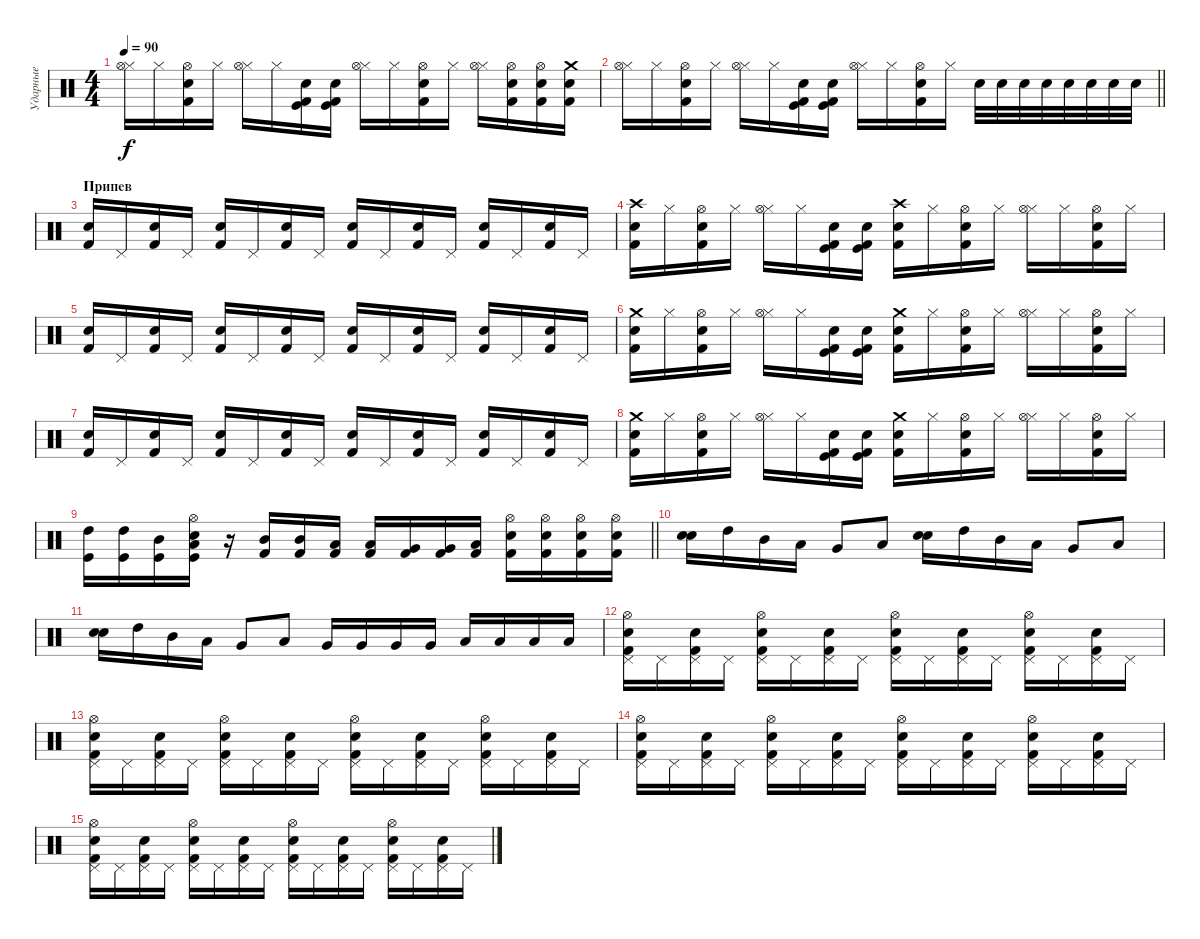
\track ("Ударные" "Ударные") {instrument percussion}
\staff {score}
\articulation defaults
\ts (4 4)
\tempo 90
\clef neutral
\ks c
("Hi-Hat (closed)" "Hi-Hat (open)").16{dy f} "Hi-Hat (closed)".16 ("Snare (hit) 2" "Hi-Hat (open)" "Kick (hit) 2").16 "Hi-Hat (closed)".16 ("Hi-Hat (closed)" "Hi-Hat (open)").16 "Hi-Hat (closed)".16 ("Snare (hit) 2" "Kick (hit)" "Kick (hit) 2").16 ("Snare (hit) 2" "Kick (hit)" "Kick (hit) 2").16 ("Hi-Hat (closed)" "Hi-Hat (open)").16 "Hi-Hat (closed)".16 ("Snare (hit) 2" "Kick (hit) 2" "Hi-Hat (open)").16 "Hi-Hat (closed)".16 ("Hi-Hat (closed)" "Hi-Hat (open)").16 ("Snare (hit) 2" "Kick (hit) 2" "Hi-Hat (open)").16 ("Snare (hit) 2" "Kick (hit) 2" "Hi-Hat (open)").16 ("Snare (hit) 2" "Kick (hit) 2" "Crash medium (hit)").16 |
\barLineRight lightlight
("Hi-Hat (closed)" "Hi-Hat (open)").16 "Hi-Hat (closed)".16 ("Snare (hit) 2" "Hi-Hat (open)" "Kick (hit) 2").16 "Hi-Hat (closed)".16 ("Hi-Hat (closed)" "Hi-Hat (open)").16 "Hi-Hat (closed)".16 ("Snare (hit) 2" "Kick (hit)" "Kick (hit) 2").16 ("Snare (hit) 2" "Kick (hit)" "Kick (hit) 2").16 ("Hi-Hat (closed)" "Hi-Hat (open)").16 "Hi-Hat (closed)".16 ("Snare (hit) 2" "Kick (hit) 2" "Hi-Hat (open)").16 "Hi-Hat (closed)".16 "Electric Snare (hit)".32 "Electric Snare (hit)".32 "Electric Snare (hit)".32 "Electric Snare (hit)".32 "Electric Snare (hit)".32 "Electric Snare (hit)".32 "Electric Snare (hit)".32 "Electric Snare (hit)".32 |
\section ("" "Припев")
("Electric Snare (hit)" "Kick (hit) 2").16 "Pedal Hi-Hat (hit)".16 ("Electric Snare (hit)" "Kick (hit) 2").16 "Pedal Hi-Hat (hit)".16 ("Electric Snare (hit)" "Kick (hit) 2").16 "Pedal Hi-Hat (hit)".16 ("Electric Snare (hit)" "Kick (hit) 2").16 "Pedal Hi-Hat (hit)".16 ("Electric Snare (hit)" "Kick (hit) 2").16 "Pedal Hi-Hat (hit)".16 ("Electric Snare (hit)" "Kick (hit) 2").16 "Pedal Hi-Hat (hit)".16 ("Electric Snare (hit)" "Kick (hit) 2").16 "Pedal Hi-Hat (hit)".16 ("Electric Snare (hit)" "Kick (hit) 2").16 "Pedal Hi-Hat (hit)".16 |
("Crash high (hit)" "Snare (hit) 2" "Kick (hit) 2").16 "Hi-Hat (closed)".16 ("Snare (hit) 2" "Hi-Hat (open)" "Kick (hit) 2").16 "Hi-Hat (closed)".16 ("Hi-Hat (closed)" "Hi-Hat (open)").16 "Hi-Hat (closed)".16 ("Snare (hit) 2" "Kick (hit)" "Kick (hit) 2").16 ("Snare (hit) 2" "Kick (hit)" "Kick (hit) 2").16 ("Crash high (hit)" "Kick (hit) 2" "Snare (hit) 2").16 "Hi-Hat (closed)".16 ("Snare (hit) 2" "Kick (hit) 2" "Hi-Hat (open)").16 "Hi-Hat (closed)".16 ("Hi-Hat (closed)" "Hi-Hat (open)").16 "Hi-Hat (closed)".16 ("Snare (hit) 2" "Kick (hit) 2" "Hi-Hat (open)").16 "Hi-Hat (closed)".16 |
("Electric Snare (hit)" "Kick (hit) 2").16 "Pedal Hi-Hat (hit)".16 ("Electric Snare (hit)" "Kick (hit) 2").16 "Pedal Hi-Hat (hit)".16 ("Electric Snare (hit)" "Kick (hit) 2").16 "Pedal Hi-Hat (hit)".16 ("Electric Snare (hit)" "Kick (hit) 2").16 "Pedal Hi-Hat (hit)".16 ("Electric Snare (hit)" "Kick (hit) 2").16 "Pedal Hi-Hat (hit)".16 ("Electric Snare (hit)" "Kick (hit) 2").16 "Pedal Hi-Hat (hit)".16 ("Electric Snare (hit)" "Kick (hit) 2").16 "Pedal Hi-Hat (hit)".16 ("Electric Snare (hit)" "Kick (hit) 2").16 "Pedal Hi-Hat (hit)".16 |
("Crash medium (hit)" "Kick (hit) 2" "Snare (hit) 2").16 "Hi-Hat (closed)".16 ("Snare (hit) 2" "Hi-Hat (open)" "Kick (hit) 2").16 "Hi-Hat (closed)".16 ("Hi-Hat (closed)" "Hi-Hat (open)").16 "Hi-Hat (closed)".16 ("Snare (hit) 2" "Kick (hit)" "Kick (hit) 2").16 ("Snare (hit) 2" "Kick (hit)" "Kick (hit) 2").16 ("Crash medium (hit)" "Kick (hit) 2" "Snare (hit) 2").16 "Hi-Hat (closed)".16 ("Snare (hit) 2" "Kick (hit) 2" "Hi-Hat (open)").16 "Hi-Hat (closed)".16 ("Hi-Hat (closed)" "Hi-Hat (open)").16 "Hi-Hat (closed)".16 ("Snare (hit) 2" "Kick (hit) 2" "Hi-Hat (open)").16 "Hi-Hat (closed)".16 |
("Electric Snare (hit)" "Kick (hit) 2").16 "Pedal Hi-Hat (hit)".16 ("Electric Snare (hit)" "Kick (hit) 2").16 "Pedal Hi-Hat (hit)".16 ("Electric Snare (hit)" "Kick (hit) 2").16 "Pedal Hi-Hat (hit)".16 ("Electric Snare (hit)" "Kick (hit) 2").16 "Pedal Hi-Hat (hit)".16 ("Electric Snare (hit)" "Kick (hit) 2").16 "Pedal Hi-Hat (hit)".16 ("Electric Snare (hit)" "Kick (hit) 2").16 "Pedal Hi-Hat (hit)".16 ("Electric Snare (hit)" "Kick (hit) 2").16 "Pedal Hi-Hat (hit)".16 ("Electric Snare (hit)" "Kick (hit) 2").16 "Pedal Hi-Hat (hit)".16 |
("Crash medium (hit)" "Kick (hit) 2" "Snare (hit) 2").16 "Hi-Hat (closed)".16 ("Snare (hit) 2" "Hi-Hat (open)" "Kick (hit) 2").16 "Hi-Hat (closed)".16 ("Hi-Hat (closed)" "Hi-Hat (open)").16 "Hi-Hat (closed)".16 ("Snare (hit) 2" "Kick (hit)" "Kick (hit) 2").16 ("Snare (hit) 2" "Kick (hit)" "Kick (hit) 2").16 ("Crash medium (hit)" "Kick (hit) 2" "Snare (hit) 2").16 "Hi-Hat (closed)".16 ("Snare (hit) 2" "Kick (hit) 2" "Hi-Hat (open)").16 "Hi-Hat (closed)".16 ("Hi-Hat (closed)" "Hi-Hat (open)").16 "Hi-Hat (closed)".16 ("Snare (hit) 2" "Kick (hit) 2" "Hi-Hat (open)").16 "Hi-Hat (closed)".16 |
\barLineRight lightlight
("High Tom (hit)" "Kick (hit)").16 ("High Tom (hit)" "Kick (hit)").16 ("Mid Tom (hit)" "Kick (hit)").16 ("Hi-Hat (open)" "Low Tom (hit)" "Kick (hit)" "Electric Snare (hit)").16 r.16 ("Mid Tom (hit)" "Kick (hit) 2").16 ("Mid Tom (hit)" "Kick (hit) 2").16 ("Low Tom (hit)" "Kick (hit) 2").16 ("Low Tom (hit)" "Kick (hit) 2").16 ("Very Low Tom (hit)" "Kick (hit) 2").16 ("Very Low Tom (hit)" "Kick (hit) 2").16 ("Low Floor Tom (hit)" "Kick (hit) 2").16 ("Hi-Hat (open)" "Kick (hit) 2" "Snare (hit) 2").16 ("Hi-Hat (open)" "Kick (hit) 2" "Snare (hit) 2").16 ("Hi-Hat (open)" "Kick (hit) 2" "Snare (hit) 2").16 ("Hi-Hat (open)" "Kick (hit) 2" "Snare (hit) 2").16 |
("Electric Snare (hit)" "Electric Snare (hit)").16 "High Tom (hit)".16 "Mid Tom (hit)".16 "Low Tom (hit)".16 "Very Low Tom (hit)".8 "Low Floor Tom (hit)".8 ("Electric Snare (hit)" "Electric Snare (hit)").16 "High Tom (hit)".16 "Mid Tom (hit)".16 "Low Tom (hit)".16 "Very Low Tom (hit)".8 "Low Floor Tom (hit)".8 |
("Electric Snare (hit)" "Electric Snare (hit)").16 "High Tom (hit)".16 "Mid Tom (hit)".16 "Low Tom (hit)".16 "Very Low Tom (hit)".8 "Low Floor Tom (hit)".8 "Very Low Tom (hit)".16 "Very Low Tom (hit)".16 "Very Low Tom (hit)".16 "Very Low Tom (hit)".16 "Low Floor Tom (hit)".16 "Low Floor Tom (hit)".16 "Low Floor Tom (hit)".16 "Low Floor Tom (hit)".16 |
("Pedal Hi-Hat (hit)" "Snare (hit) 2" "Hi-Hat (open)" "Kick (hit) 2").16 "Pedal Hi-Hat (hit)".16 ("Pedal Hi-Hat (hit)" "Snare (hit) 2" "Kick (hit) 2").16 "Pedal Hi-Hat (hit)".16 ("Pedal Hi-Hat (hit)" "Snare (hit) 2" "Hi-Hat (open)" "Kick (hit) 2").16 "Pedal Hi-Hat (hit)".16 ("Pedal Hi-Hat (hit)" "Snare (hit) 2" "Kick (hit) 2").16 "Pedal Hi-Hat (hit)".16 ("Pedal Hi-Hat (hit)" "Snare (hit) 2" "Hi-Hat (open)" "Kick (hit) 2").16 "Pedal Hi-Hat (hit)".16 ("Pedal Hi-Hat (hit)" "Snare (hit) 2" "Kick (hit) 2").16 "Pedal Hi-Hat (hit)".16 ("Pedal Hi-Hat (hit)" "Snare (hit) 2" "Hi-Hat (open)" "Kick (hit) 2").16 "Pedal Hi-Hat (hit)".16 ("Pedal Hi-Hat (hit)" "Snare (hit) 2" "Kick (hit) 2").16 "Pedal Hi-Hat (hit)".16 |
("Pedal Hi-Hat (hit)" "Snare (hit) 2" "Hi-Hat (open)" "Kick (hit) 2").16 "Pedal Hi-Hat (hit)".16 ("Pedal Hi-Hat (hit)" "Snare (hit) 2" "Kick (hit) 2").16 "Pedal Hi-Hat (hit)".16 ("Pedal Hi-Hat (hit)" "Snare (hit) 2" "Hi-Hat (open)" "Kick (hit) 2").16 "Pedal Hi-Hat (hit)".16 ("Pedal Hi-Hat (hit)" "Snare (hit) 2" "Kick (hit) 2").16 "Pedal Hi-Hat (hit)".16 ("Pedal Hi-Hat (hit)" "Snare (hit) 2" "Hi-Hat (open)" "Kick (hit) 2").16 "Pedal Hi-Hat (hit)".16 ("Pedal Hi-Hat (hit)" "Snare (hit) 2" "Kick (hit) 2").16 "Pedal Hi-Hat (hit)".16 ("Pedal Hi-Hat (hit)" "Snare (hit) 2" "Hi-Hat (open)" "Kick (hit) 2").16 "Pedal Hi-Hat (hit)".16 ("Pedal Hi-Hat (hit)" "Snare (hit) 2" "Kick (hit) 2").16 "Pedal Hi-Hat (hit)".16 |
("Pedal Hi-Hat (hit)" "Snare (hit) 2" "Hi-Hat (open)" "Kick (hit) 2").16 "Pedal Hi-Hat (hit)".16 ("Pedal Hi-Hat (hit)" "Snare (hit) 2" "Kick (hit) 2").16 "Pedal Hi-Hat (hit)".16 ("Pedal Hi-Hat (hit)" "Snare (hit) 2" "Hi-Hat (open)" "Kick (hit) 2").16 "Pedal Hi-Hat (hit)".16 ("Pedal Hi-Hat (hit)" "Snare (hit) 2" "Kick (hit) 2").16 "Pedal Hi-Hat (hit)".16 ("Pedal Hi-Hat (hit)" "Snare (hit) 2" "Hi-Hat (open)" "Kick (hit) 2").16 "Pedal Hi-Hat (hit)".16 ("Pedal Hi-Hat (hit)" "Snare (hit) 2" "Kick (hit) 2").16 "Pedal Hi-Hat (hit)".16 ("Pedal Hi-Hat (hit)" "Snare (hit) 2" "Hi-Hat (open)" "Kick (hit) 2").16 "Pedal Hi-Hat (hit)".16 ("Pedal Hi-Hat (hit)" "Snare (hit) 2" "Kick (hit) 2").16 "Pedal Hi-Hat (hit)".16 |
("Pedal Hi-Hat (hit)" "Snare (hit) 2" "Hi-Hat (open)" "Kick (hit) 2").16 "Pedal Hi-Hat (hit)".16 ("Pedal Hi-Hat (hit)" "Snare (hit) 2" "Kick (hit) 2").16 "Pedal Hi-Hat (hit)".16 ("Pedal Hi-Hat (hit)" "Snare (hit) 2" "Hi-Hat (open)" "Kick (hit) 2").16 "Pedal Hi-Hat (hit)".16 ("Pedal Hi-Hat (hit)" "Snare (hit) 2" "Kick (hit) 2").16 "Pedal Hi-Hat (hit)".16 ("Pedal Hi-Hat (hit)" "Snare (hit) 2" "Hi-Hat (open)" "Kick (hit) 2").16 "Pedal Hi-Hat (hit)".16 ("Pedal Hi-Hat (hit)" "Snare (hit) 2" "Kick (hit) 2").16 "Pedal Hi-Hat (hit)".16 ("Pedal Hi-Hat (hit)" "Snare (hit) 2" "Hi-Hat (open)" "Kick (hit) 2").16 "Pedal Hi-Hat (hit)".16 ("Pedal Hi-Hat (hit)" "Snare (hit) 2" "Kick (hit) 2").16 "Pedal Hi-Hat (hit)".16
